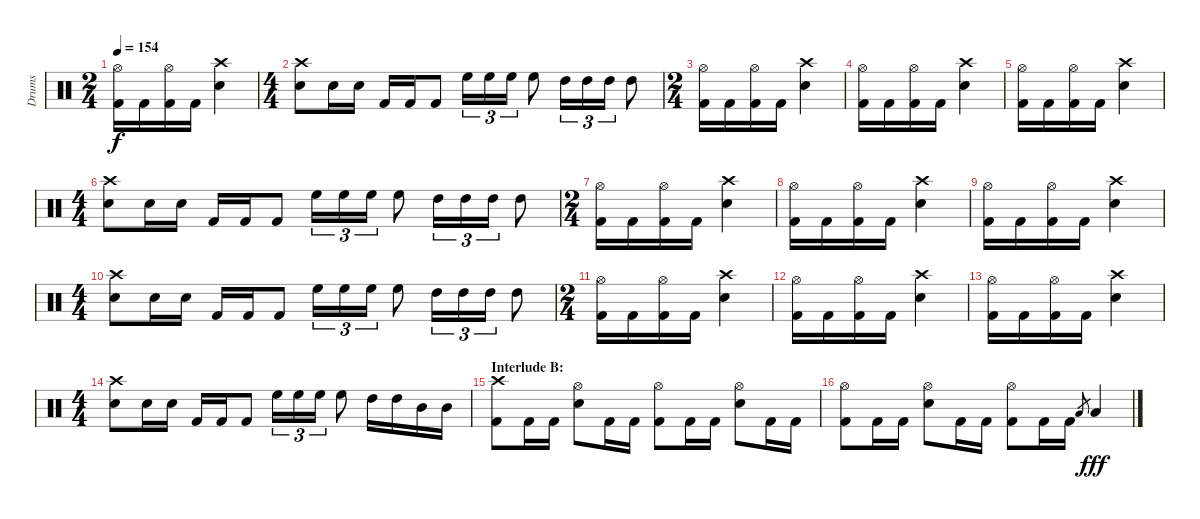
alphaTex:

\track ("Drums" "Drums") {instrument percussion}
\staff {score}
\articulation defaults
\ts (2 4)
\tempo 154
\clef neutral
\ks c
("Hi-Hat (open)" "Kick (hit) 2").16{dy f} "Kick (hit) 2".16 ("Hi-Hat (open)" "Kick (hit) 2").16 "Kick (hit) 2".16 ("Crash high (hit)" "Snare (hit) 2").4 |
\ts (4 4)
("Crash high (hit)" "Snare (hit) 2").8 "Snare (hit) 2".16 "Snare (hit) 2".16 "Kick (hit) 2".16 "Kick (hit) 2".16 "Kick (hit) 2".8 "High Floor Tom (hit)".16{tu (3 2)} "High Floor Tom (hit)".16{tu (3 2)} "High Floor Tom (hit)".16{tu (3 2)} "High Floor Tom (hit)".8 "High Tom (hit)".16{tu (3 2)} "High Tom (hit)".16{tu (3 2)} "High Tom (hit)".16{tu (3 2)} "High Tom (hit)".8 |
\ts (2 4)
("Hi-Hat (open)" "Kick (hit) 2").16 "Kick (hit) 2".16 ("Hi-Hat (open)" "Kick (hit) 2").16 "Kick (hit) 2".16 ("Crash high (hit)" "Snare (hit) 2").4 |
("Hi-Hat (open)" "Kick (hit) 2").16 "Kick (hit) 2".16 ("Hi-Hat (open)" "Kick (hit) 2").16 "Kick (hit) 2".16 ("Crash high (hit)" "Snare (hit) 2").4 |
("Hi-Hat (open)" "Kick (hit) 2").16 "Kick (hit) 2".16 ("Hi-Hat (open)" "Kick (hit) 2").16 "Kick (hit) 2".16 ("Crash high (hit)" "Snare (hit) 2").4 |
\ts (4 4)
("Crash high (hit)" "Snare (hit) 2").8 "Snare (hit) 2".16 "Snare (hit) 2".16 "Kick (hit) 2".16 "Kick (hit) 2".16 "Kick (hit) 2".8 "High Floor Tom (hit)".16{tu (3 2)} "High Floor Tom (hit)".16{tu (3 2)} "High Floor Tom (hit)".16{tu (3 2)} "High Floor Tom (hit)".8 "High Tom (hit)".16{tu (3 2)} "High Tom (hit)".16{tu (3 2)} "High Tom (hit)".16{tu (3 2)} "High Tom (hit)".8 |
\ts (2 4)
("Hi-Hat (open)" "Kick (hit) 2").16 "Kick (hit) 2".16 ("Hi-Hat (open)" "Kick (hit) 2").16 "Kick (hit) 2".16 ("Crash high (hit)" "Snare (hit) 2").4 |
("Hi-Hat (open)" "Kick (hit) 2").16 "Kick (hit) 2".16 ("Hi-Hat (open)" "Kick (hit) 2").16 "Kick (hit) 2".16 ("Crash high (hit)" "Snare (hit) 2").4 |
("Hi-Hat (open)" "Kick (hit) 2").16 "Kick (hit) 2".16 ("Hi-Hat (open)" "Kick (hit) 2").16 "Kick (hit) 2".16 ("Crash high (hit)" "Snare (hit) 2").4 |
\ts (4 4)
("Crash high (hit)" "Snare (hit) 2").8 "Snare (hit) 2".16 "Snare (hit) 2".16 "Kick (hit) 2".16 "Kick (hit) 2".16 "Kick (hit) 2".8 "High Floor Tom (hit)".16{tu (3 2)} "High Floor Tom (hit)".16{tu (3 2)} "High Floor Tom (hit)".16{tu (3 2)} "High Floor Tom (hit)".8 "High Tom (hit)".16{tu (3 2)} "High Tom (hit)".16{tu (3 2)} "High Tom (hit)".16{tu (3 2)} "High Tom (hit)".8 |
\ts (2 4)
("Hi-Hat (open)" "Kick (hit) 2").16 "Kick (hit) 2".16 ("Hi-Hat (open)" "Kick (hit) 2").16 "Kick (hit) 2".16 ("Crash high (hit)" "Snare (hit) 2").4 |
("Hi-Hat (open)" "Kick (hit) 2").16 "Kick (hit) 2".16 ("Hi-Hat (open)" "Kick (hit) 2").16 "Kick (hit) 2".16 ("Crash high (hit)" "Snare (hit) 2").4 |
("Hi-Hat (open)" "Kick (hit) 2").16 "Kick (hit) 2".16 ("Hi-Hat (open)" "Kick (hit) 2").16 "Kick (hit) 2".16 ("Crash high (hit)" "Snare (hit) 2").4 |
\ts (4 4)
("Crash high (hit)" "Snare (hit) 2").8 "Snare (hit) 2".16 "Snare (hit) 2".16 "Kick (hit) 2".16 "Kick (hit) 2".16 "Kick (hit) 2".8 "High Floor Tom (hit)".16{tu (3 2)} "High Floor Tom (hit)".16{tu (3 2)} "High Floor Tom (hit)".16{tu (3 2)} "High Floor Tom (hit)".8 "High Tom (hit)".16 "High Tom (hit)".16 "Mid Tom (hit)".16 "Mid Tom (hit)".16 |
\section ("" "Interlude B:")
("Crash high (hit)" "Kick (hit) 2").8 "Kick (hit) 2".16 "Kick (hit) 2".16 ("Hi-Hat (open)" "Snare (hit) 2").8 "Kick (hit) 2".16 "Kick (hit) 2".16 ("Hi-Hat (open)" "Kick (hit) 2").8 "Kick (hit) 2".16 "Kick (hit) 2".16 ("Hi-Hat (open)" "Snare (hit) 2").8 "Kick (hit) 2".16 "Kick (hit) 2".16 |
("Hi-Hat (open)" "Kick (hit) 2").8 "Kick (hit) 2".16 "Kick (hit) 2".16 ("Hi-Hat (open)" "Snare (hit) 2").8 "Kick (hit) 2".16 "Kick (hit) 2".16 ("Hi-Hat (open)" "Kick (hit) 2").8 "Kick (hit) 2".16 "Kick (hit) 2".16 "Low Tom (hit)".8{gr} "Low Tom (hit)".4{dy fff}
